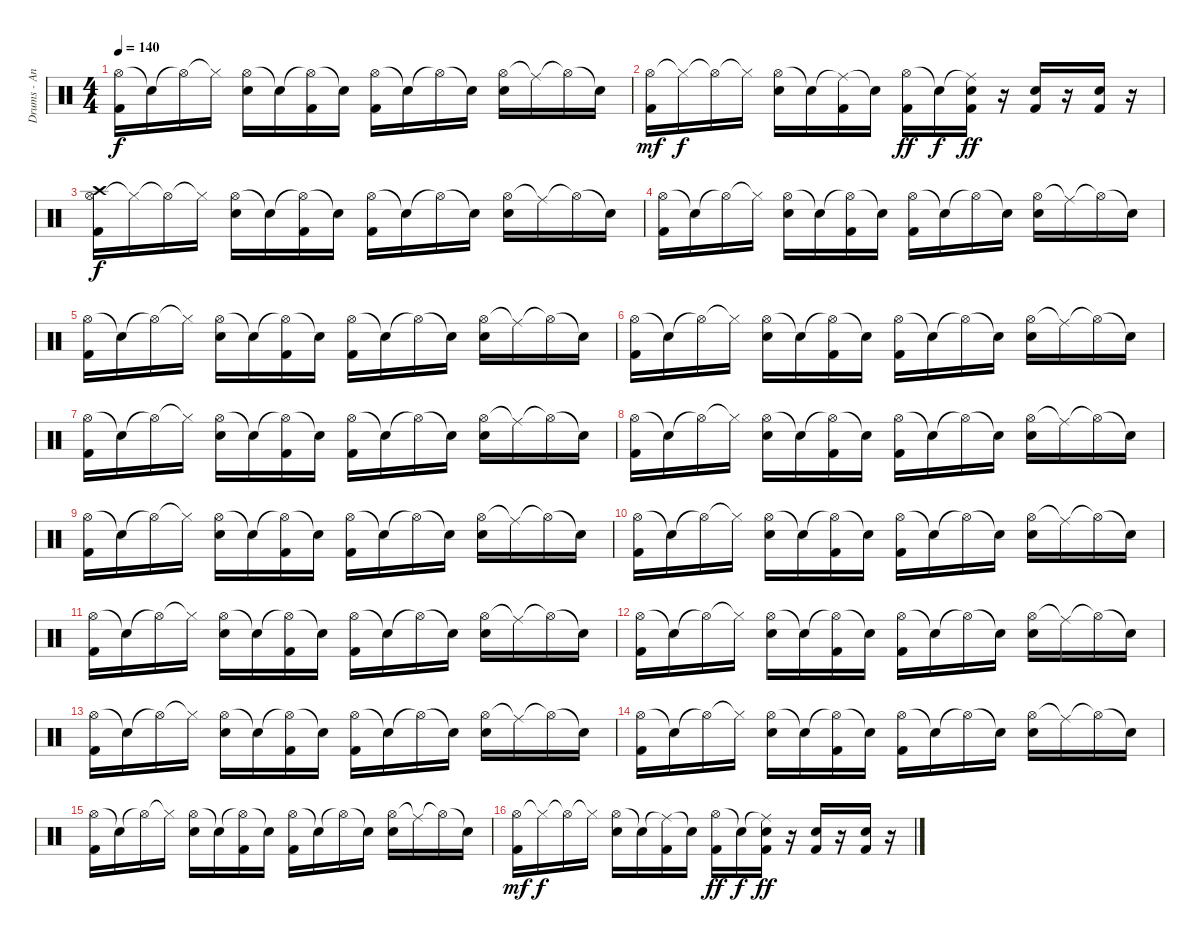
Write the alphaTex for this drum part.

\track ("Drums - Andy Strachan" "Drums - An") {instrument percussion}
\staff {score}
\articulation defaults
\ts (4 4)
\tempo 140
\clef neutral
\ks c
("Hi-Hat (open)" "Kick (hit) 2").16{dy f} "Snare (hit)"{t}.16 "Hi-Hat (open)"{t}.16 "Hi-Hat (closed)"{t}.16 ("Hi-Hat (open)" "Electric Snare (hit)").16 "Snare (hit)"{t}.16 ("Hi-Hat (open)"{t} "Kick (hit) 2").16 "Snare (hit)"{t}.16 ("Hi-Hat (open)" "Kick (hit) 2").16 "Snare (hit)"{t}.16 "Hi-Hat (open)"{t}.16 "Snare (hit)"{t}.16 ("Hi-Hat (open)" "Electric Snare (hit)").16 "Ride (middle)"{t}.16 "Hi-Hat (open)"{t}.16 "Snare (hit)"{t}.16 |
("Hi-Hat (open)" "Kick (hit) 2").16{dy mf} "Hi-Hat (closed)"{t}.16{dy f} "Hi-Hat (open)"{t}.16 "Hi-Hat (closed)"{t}.16 ("Hi-Hat (open)" "Electric Snare (hit)").16 "Snare (hit)"{t}.16 ("Ride (middle)"{t} "Kick (hit) 2").16 "Snare (hit)"{t}.16 ("Hi-Hat (open)" "Kick (hit) 2").16{dy ff} "Snare (hit)"{t}.16{dy f} ("Ride (middle)"{t} "Kick (hit) 2" "Electric Snare (hit)").16{dy ff} r.16 ("Kick (hit) 2" "Electric Snare (hit)").16 r.16 ("Kick (hit) 2" "Electric Snare (hit)").16 r.16 |
("Hi-Hat (open)" "Kick (hit) 2" "Crash high (hit)").16{dy f} "Hi-Hat (closed)"{t}.16 "Hi-Hat (open)"{t}.16 "Hi-Hat (closed)"{t}.16 ("Hi-Hat (open)" "Electric Snare (hit)").16 "Snare (hit)"{t}.16 ("Hi-Hat (open)"{t} "Kick (hit) 2").16 "Snare (hit)"{t}.16 ("Hi-Hat (open)" "Kick (hit) 2").16 "Snare (hit)"{t}.16 "Hi-Hat (open)"{t}.16 "Snare (hit)"{t}.16 ("Hi-Hat (open)" "Electric Snare (hit)").16 "Ride (middle)"{t}.16 "Hi-Hat (open)"{t}.16 "Snare (hit)"{t}.16 |
("Hi-Hat (open)" "Kick (hit) 2").16 "Snare (hit)"{t}.16 "Hi-Hat (open)"{t}.16 "Hi-Hat (closed)"{t}.16 ("Hi-Hat (open)" "Electric Snare (hit)").16 "Snare (hit)"{t}.16 ("Hi-Hat (open)"{t} "Kick (hit) 2").16 "Snare (hit)"{t}.16 ("Hi-Hat (open)" "Kick (hit) 2").16 "Snare (hit)"{t}.16 "Hi-Hat (open)"{t}.16 "Snare (hit)"{t}.16 ("Hi-Hat (open)" "Electric Snare (hit)").16 "Ride (middle)"{t}.16 "Hi-Hat (open)"{t}.16 "Snare (hit)"{t}.16 |
("Hi-Hat (open)" "Kick (hit) 2").16 "Snare (hit)"{t}.16 "Hi-Hat (open)"{t}.16 "Hi-Hat (closed)"{t}.16 ("Hi-Hat (open)" "Electric Snare (hit)").16 "Snare (hit)"{t}.16 ("Hi-Hat (open)"{t} "Kick (hit) 2").16 "Snare (hit)"{t}.16 ("Hi-Hat (open)" "Kick (hit) 2").16 "Snare (hit)"{t}.16 "Hi-Hat (open)"{t}.16 "Snare (hit)"{t}.16 ("Hi-Hat (open)" "Electric Snare (hit)").16 "Ride (middle)"{t}.16 "Hi-Hat (open)"{t}.16 "Snare (hit)"{t}.16 |
("Hi-Hat (open)" "Kick (hit) 2").16 "Snare (hit)"{t}.16 "Hi-Hat (open)"{t}.16 "Hi-Hat (closed)"{t}.16 ("Hi-Hat (open)" "Electric Snare (hit)").16 "Snare (hit)"{t}.16 ("Hi-Hat (open)"{t} "Kick (hit) 2").16 "Snare (hit)"{t}.16 ("Hi-Hat (open)" "Kick (hit) 2").16 "Snare (hit)"{t}.16 "Hi-Hat (open)"{t}.16 "Snare (hit)"{t}.16 ("Hi-Hat (open)" "Electric Snare (hit)").16 "Ride (middle)"{t}.16 "Hi-Hat (open)"{t}.16 "Snare (hit)"{t}.16 |
("Hi-Hat (open)" "Kick (hit) 2").16 "Snare (hit)"{t}.16 "Hi-Hat (open)"{t}.16 "Hi-Hat (closed)"{t}.16 ("Hi-Hat (open)" "Electric Snare (hit)").16 "Snare (hit)"{t}.16 ("Hi-Hat (open)"{t} "Kick (hit) 2").16 "Snare (hit)"{t}.16 ("Hi-Hat (open)" "Kick (hit) 2").16 "Snare (hit)"{t}.16 "Hi-Hat (open)"{t}.16 "Snare (hit)"{t}.16 ("Hi-Hat (open)" "Electric Snare (hit)").16 "Ride (middle)"{t}.16 "Hi-Hat (open)"{t}.16 "Snare (hit)"{t}.16 |
("Hi-Hat (open)" "Kick (hit) 2").16 "Snare (hit)"{t}.16 "Hi-Hat (open)"{t}.16 "Hi-Hat (closed)"{t}.16 ("Hi-Hat (open)" "Electric Snare (hit)").16 "Snare (hit)"{t}.16 ("Hi-Hat (open)"{t} "Kick (hit) 2").16 "Snare (hit)"{t}.16 ("Hi-Hat (open)" "Kick (hit) 2").16 "Snare (hit)"{t}.16 "Hi-Hat (open)"{t}.16 "Snare (hit)"{t}.16 ("Hi-Hat (open)" "Electric Snare (hit)").16 "Ride (middle)"{t}.16 "Hi-Hat (open)"{t}.16 "Snare (hit)"{t}.16 |
("Hi-Hat (open)" "Kick (hit) 2").16 "Snare (hit)"{t}.16 "Hi-Hat (open)"{t}.16 "Hi-Hat (closed)"{t}.16 ("Hi-Hat (open)" "Electric Snare (hit)").16 "Snare (hit)"{t}.16 ("Hi-Hat (open)"{t} "Kick (hit) 2").16 "Snare (hit)"{t}.16 ("Hi-Hat (open)" "Kick (hit) 2").16 "Snare (hit)"{t}.16 "Hi-Hat (open)"{t}.16 "Snare (hit)"{t}.16 ("Hi-Hat (open)" "Electric Snare (hit)").16 "Ride (middle)"{t}.16 "Hi-Hat (open)"{t}.16 "Snare (hit)"{t}.16 |
("Hi-Hat (open)" "Kick (hit) 2").16 "Snare (hit)"{t}.16 "Hi-Hat (open)"{t}.16 "Hi-Hat (closed)"{t}.16 ("Hi-Hat (open)" "Electric Snare (hit)").16 "Snare (hit)"{t}.16 ("Hi-Hat (open)"{t} "Kick (hit) 2").16 "Snare (hit)"{t}.16 ("Hi-Hat (open)" "Kick (hit) 2").16 "Snare (hit)"{t}.16 "Hi-Hat (open)"{t}.16 "Snare (hit)"{t}.16 ("Hi-Hat (open)" "Electric Snare (hit)").16 "Ride (middle)"{t}.16 "Hi-Hat (open)"{t}.16 "Snare (hit)"{t}.16 |
("Hi-Hat (open)" "Kick (hit) 2").16 "Snare (hit)"{t}.16 "Hi-Hat (open)"{t}.16 "Hi-Hat (closed)"{t}.16 ("Hi-Hat (open)" "Electric Snare (hit)").16 "Snare (hit)"{t}.16 ("Hi-Hat (open)"{t} "Kick (hit) 2").16 "Snare (hit)"{t}.16 ("Hi-Hat (open)" "Kick (hit) 2").16 "Snare (hit)"{t}.16 "Hi-Hat (open)"{t}.16 "Snare (hit)"{t}.16 ("Hi-Hat (open)" "Electric Snare (hit)").16 "Ride (middle)"{t}.16 "Hi-Hat (open)"{t}.16 "Snare (hit)"{t}.16 |
("Hi-Hat (open)" "Kick (hit) 2").16 "Snare (hit)"{t}.16 "Hi-Hat (open)"{t}.16 "Hi-Hat (closed)"{t}.16 ("Hi-Hat (open)" "Electric Snare (hit)").16 "Snare (hit)"{t}.16 ("Hi-Hat (open)"{t} "Kick (hit) 2").16 "Snare (hit)"{t}.16 ("Hi-Hat (open)" "Kick (hit) 2").16 "Snare (hit)"{t}.16 "Hi-Hat (open)"{t}.16 "Snare (hit)"{t}.16 ("Hi-Hat (open)" "Electric Snare (hit)").16 "Ride (middle)"{t}.16 "Hi-Hat (open)"{t}.16 "Snare (hit)"{t}.16 |
("Hi-Hat (open)" "Kick (hit) 2").16 "Snare (hit)"{t}.16 "Hi-Hat (open)"{t}.16 "Hi-Hat (closed)"{t}.16 ("Hi-Hat (open)" "Electric Snare (hit)").16 "Snare (hit)"{t}.16 ("Hi-Hat (open)"{t} "Kick (hit) 2").16 "Snare (hit)"{t}.16 ("Hi-Hat (open)" "Kick (hit) 2").16 "Snare (hit)"{t}.16 "Hi-Hat (open)"{t}.16 "Snare (hit)"{t}.16 ("Hi-Hat (open)" "Electric Snare (hit)").16 "Ride (middle)"{t}.16 "Hi-Hat (open)"{t}.16 "Snare (hit)"{t}.16 |
("Hi-Hat (open)" "Kick (hit) 2").16 "Snare (hit)"{t}.16 "Hi-Hat (open)"{t}.16 "Hi-Hat (closed)"{t}.16 ("Hi-Hat (open)" "Electric Snare (hit)").16 "Snare (hit)"{t}.16 ("Hi-Hat (open)"{t} "Kick (hit) 2").16 "Snare (hit)"{t}.16 ("Hi-Hat (open)" "Kick (hit) 2").16 "Snare (hit)"{t}.16 "Hi-Hat (open)"{t}.16 "Snare (hit)"{t}.16 ("Hi-Hat (open)" "Electric Snare (hit)").16 "Ride (middle)"{t}.16 "Hi-Hat (open)"{t}.16 "Snare (hit)"{t}.16 |
("Hi-Hat (open)" "Kick (hit) 2").16 "Snare (hit)"{t}.16 "Hi-Hat (open)"{t}.16 "Hi-Hat (closed)"{t}.16 ("Hi-Hat (open)" "Electric Snare (hit)").16 "Snare (hit)"{t}.16 ("Hi-Hat (open)"{t} "Kick (hit) 2").16 "Snare (hit)"{t}.16 ("Hi-Hat (open)" "Kick (hit) 2").16 "Snare (hit)"{t}.16 "Hi-Hat (open)"{t}.16 "Snare (hit)"{t}.16 ("Hi-Hat (open)" "Electric Snare (hit)").16 "Ride (middle)"{t}.16 "Hi-Hat (open)"{t}.16 "Snare (hit)"{t}.16 |
("Hi-Hat (open)" "Kick (hit) 2").16{dy mf} "Hi-Hat (closed)"{t}.16{dy f} "Hi-Hat (open)"{t}.16 "Hi-Hat (closed)"{t}.16 ("Hi-Hat (open)" "Electric Snare (hit)").16 "Snare (hit)"{t}.16 ("Ride (middle)"{t} "Kick (hit) 2").16 "Snare (hit)"{t}.16 ("Hi-Hat (open)" "Kick (hit) 2").16{dy ff} "Snare (hit)"{t}.16{dy f} ("Ride (middle)"{t} "Kick (hit) 2" "Electric Snare (hit)").16{dy ff} r.16 ("Kick (hit) 2" "Electric Snare (hit)").16 r.16 ("Kick (hit) 2" "Electric Snare (hit)").16 r.16
